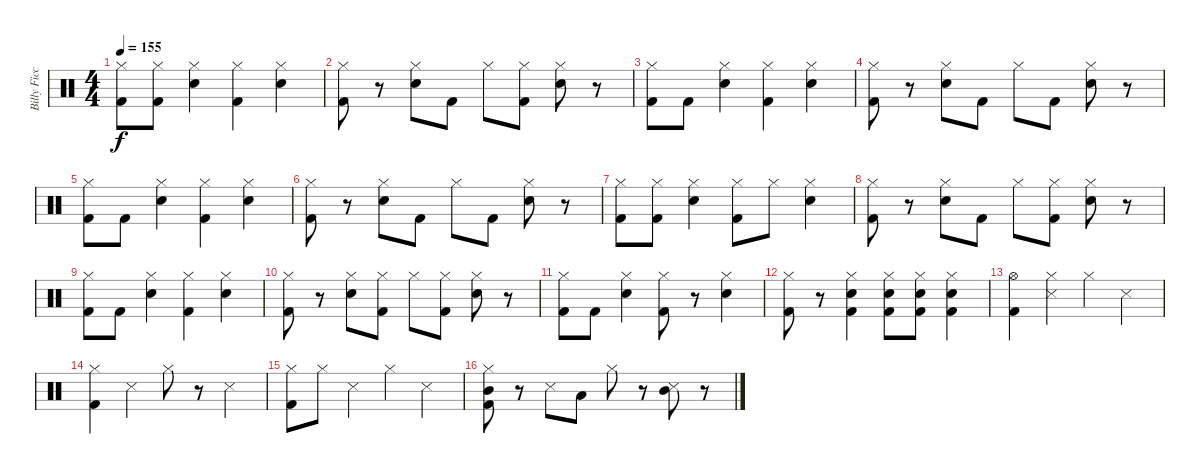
\track ("Billy Ficca" "Billy Ficc") {instrument percussion}
\staff {score}
\articulation defaults
\ts (4 4)
\tempo 155
\clef neutral
\ks c
("Hi-Hat (closed)" "Kick (hit) 2").8{dy f} ("Hi-Hat (closed)" "Kick (hit) 2").8 ("Hi-Hat (closed)" "Electric Snare (hit)").4 ("Hi-Hat (closed)" "Kick (hit) 2").4 ("Hi-Hat (closed)" "Electric Snare (hit)").4 |
("Hi-Hat (closed)" "Kick (hit) 2").8 r.8 ("Hi-Hat (closed)" "Electric Snare (hit)").8 "Kick (hit) 2".8 "Hi-Hat (closed)".8 ("Hi-Hat (closed)" "Kick (hit) 2").8 ("Hi-Hat (closed)" "Electric Snare (hit)").8 r.8 |
("Hi-Hat (closed)" "Kick (hit) 2").8 "Kick (hit) 2".8 ("Hi-Hat (closed)" "Electric Snare (hit)").4 ("Hi-Hat (closed)" "Kick (hit) 2").4 ("Hi-Hat (closed)" "Electric Snare (hit)").4 |
("Hi-Hat (closed)" "Kick (hit) 2").8 r.8 ("Hi-Hat (closed)" "Electric Snare (hit)").8 "Kick (hit) 2".8 "Hi-Hat (closed)".8 "Kick (hit) 2".8 ("Hi-Hat (closed)" "Electric Snare (hit)").8 r.8 |
("Hi-Hat (closed)" "Kick (hit) 2").8 "Kick (hit) 2".8 ("Hi-Hat (closed)" "Electric Snare (hit)").4 ("Hi-Hat (closed)" "Kick (hit) 2").4 ("Hi-Hat (closed)" "Electric Snare (hit)").4 |
("Hi-Hat (closed)" "Kick (hit) 2").8 r.8 ("Hi-Hat (closed)" "Electric Snare (hit)").8 "Kick (hit) 2".8 "Hi-Hat (closed)".8 "Kick (hit) 2".8 ("Hi-Hat (closed)" "Electric Snare (hit)").8 r.8 |
("Hi-Hat (closed)" "Kick (hit) 2").8 ("Hi-Hat (closed)" "Kick (hit) 2").8 ("Hi-Hat (closed)" "Electric Snare (hit)").4 ("Hi-Hat (closed)" "Kick (hit) 2").8 "Hi-Hat (closed)".8 ("Hi-Hat (closed)" "Electric Snare (hit)").4 |
("Hi-Hat (closed)" "Kick (hit) 2").8 r.8 ("Hi-Hat (closed)" "Electric Snare (hit)").8 "Kick (hit) 2".8 "Hi-Hat (closed)".8 ("Hi-Hat (closed)" "Kick (hit) 2").8 ("Hi-Hat (closed)" "Electric Snare (hit)").8 r.8 |
("Hi-Hat (closed)" "Kick (hit) 2").8 "Kick (hit) 2".8 ("Hi-Hat (closed)" "Electric Snare (hit)").4 ("Hi-Hat (closed)" "Kick (hit) 2").4 ("Hi-Hat (closed)" "Electric Snare (hit)").4 |
("Hi-Hat (closed)" "Kick (hit) 2").8 r.8 ("Hi-Hat (closed)" "Electric Snare (hit)").8 ("Hi-Hat (closed)" "Kick (hit) 2").8 "Hi-Hat (closed)".8 ("Hi-Hat (closed)" "Kick (hit) 2").8 ("Hi-Hat (closed)" "Electric Snare (hit)").8 r.8 |
("Hi-Hat (closed)" "Kick (hit) 2").8 "Kick (hit) 2".8 ("Hi-Hat (closed)" "Electric Snare (hit)").4 ("Hi-Hat (closed)" "Kick (hit) 2").8 r.8 ("Hi-Hat (closed)" "Electric Snare (hit)").4 |
("Hi-Hat (closed)" "Kick (hit) 2").8 r.8 ("Hi-Hat (closed)" "Electric Snare (hit)" "Kick (hit) 2").4 ("Hi-Hat (closed)" "Electric Snare (hit)" "Kick (hit) 2").8 ("Hi-Hat (closed)" "Electric Snare (hit)" "Kick (hit) 2").8 ("Hi-Hat (closed)" "Electric Snare (hit)" "Kick (hit) 2").4 |
("Hi-Hat (open)" "Kick (hit) 2").4 ("Hi-Hat (closed)" "Snare (side stick) 3").4 "Hi-Hat (closed)".4 "Snare (side stick) 3".4 |
("Hi-Hat (closed)" "Kick (hit) 2").4 "Snare (side stick) 3".4 "Hi-Hat (closed)".8 r.8 "Snare (side stick) 3".4 |
("Hi-Hat (closed)" "Kick (hit) 2").8 "Hi-Hat (closed)".8 "Snare (side stick) 3".4 "Hi-Hat (closed)".4 "Snare (side stick) 3".4 |
("Hi-Hat (closed)" "Mid Tom (hit)" "Kick (hit) 2").8 r.8 "Snare (side stick) 3".8 "Low Tom (hit)".8 "Hi-Hat (closed)".8 r.8 ("Snare (side stick) 3" "Mid Tom (hit)").8 r.8
